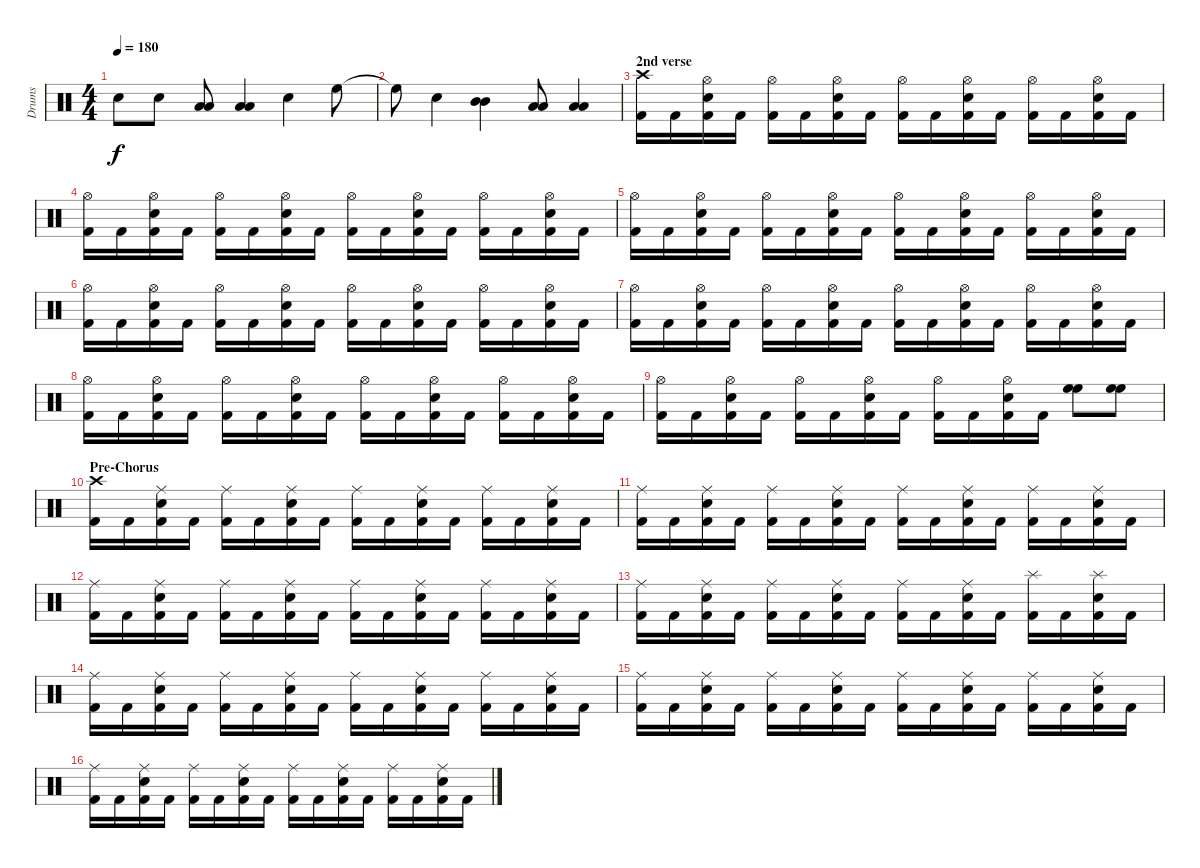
\track ("Drums" "Drums") {instrument percussion}
\staff {score}
\articulation defaults
\ts (4 4)
\tempo 180
\clef neutral
\ks c "Snare (hit) 2".8{dy f} "Snare (hit) 2".8
("Low Tom (hit)" "Low Tom (hit)").8 ("Low Floor Tom (hit)" "Low Floor Tom (hit)").4 "Snare (hit) 2".4 "High Floor Tom (hit)".8 |
"High Floor Tom (hit)"{t}.8 "Snare (hit) 2".4 ("Mid Tom (hit)" "Mid Tom (hit)").4 ("Low Tom (hit)" "Low Tom (hit)").8 ("Low Floor Tom (hit)" "Low Floor Tom (hit)").4 |
\section ("" "2nd verse")
("Crash high (hit)" "Kick (hit) 2").16 "Kick (hit) 2".16 ("Hi-Hat (open)" "Snare (hit) 2" "Kick (hit) 2").16 "Kick (hit) 2".16 ("Hi-Hat (open)" "Kick (hit) 2").16 "Kick (hit) 2".16 ("Hi-Hat (open)" "Snare (hit) 2" "Kick (hit) 2").16 "Kick (hit) 2".16 ("Hi-Hat (open)" "Kick (hit) 2").16 "Kick (hit) 2".16 ("Hi-Hat (open)" "Snare (hit) 2" "Kick (hit) 2").16 "Kick (hit) 2".16 ("Hi-Hat (open)" "Kick (hit) 2").16 "Kick (hit) 2".16 ("Hi-Hat (open)" "Snare (hit) 2" "Kick (hit) 2").16 "Kick (hit) 2".16 |
("Hi-Hat (open)" "Kick (hit) 2").16 "Kick (hit) 2".16 ("Hi-Hat (open)" "Snare (hit) 2" "Kick (hit) 2").16 "Kick (hit) 2".16 ("Hi-Hat (open)" "Kick (hit) 2").16 "Kick (hit) 2".16 ("Hi-Hat (open)" "Snare (hit) 2" "Kick (hit) 2").16 "Kick (hit) 2".16 ("Hi-Hat (open)" "Kick (hit) 2").16 "Kick (hit) 2".16 ("Hi-Hat (open)" "Snare (hit) 2" "Kick (hit) 2").16 "Kick (hit) 2".16 ("Hi-Hat (open)" "Kick (hit) 2").16 "Kick (hit) 2".16 ("Hi-Hat (open)" "Snare (hit) 2" "Kick (hit) 2").16 "Kick (hit) 2".16 |
("Hi-Hat (open)" "Kick (hit) 2").16 "Kick (hit) 2".16 ("Hi-Hat (open)" "Snare (hit) 2" "Kick (hit) 2").16 "Kick (hit) 2".16 ("Hi-Hat (open)" "Kick (hit) 2").16 "Kick (hit) 2".16 ("Hi-Hat (open)" "Snare (hit) 2" "Kick (hit) 2").16 "Kick (hit) 2".16 ("Hi-Hat (open)" "Kick (hit) 2").16 "Kick (hit) 2".16 ("Hi-Hat (open)" "Snare (hit) 2" "Kick (hit) 2").16 "Kick (hit) 2".16 ("Hi-Hat (open)" "Kick (hit) 2").16 "Kick (hit) 2".16 ("Hi-Hat (open)" "Snare (hit) 2" "Kick (hit) 2").16 "Kick (hit) 2".16 |
("Hi-Hat (open)" "Kick (hit) 2").16 "Kick (hit) 2".16 ("Hi-Hat (open)" "Snare (hit) 2" "Kick (hit) 2").16 "Kick (hit) 2".16 ("Hi-Hat (open)" "Kick (hit) 2").16 "Kick (hit) 2".16 ("Hi-Hat (open)" "Snare (hit) 2" "Kick (hit) 2").16 "Kick (hit) 2".16 ("Hi-Hat (open)" "Kick (hit) 2").16 "Kick (hit) 2".16 ("Hi-Hat (open)" "Snare (hit) 2" "Kick (hit) 2").16 "Kick (hit) 2".16 ("Hi-Hat (open)" "Kick (hit) 2").16 "Kick (hit) 2".16 ("Hi-Hat (open)" "Snare (hit) 2" "Kick (hit) 2").16 "Kick (hit) 2".16 |
("Hi-Hat (open)" "Kick (hit) 2").16 "Kick (hit) 2".16 ("Hi-Hat (open)" "Snare (hit) 2" "Kick (hit) 2").16 "Kick (hit) 2".16 ("Hi-Hat (open)" "Kick (hit) 2").16 "Kick (hit) 2".16 ("Hi-Hat (open)" "Snare (hit) 2" "Kick (hit) 2").16 "Kick (hit) 2".16 ("Hi-Hat (open)" "Kick (hit) 2").16 "Kick (hit) 2".16 ("Hi-Hat (open)" "Snare (hit) 2" "Kick (hit) 2").16 "Kick (hit) 2".16 ("Hi-Hat (open)" "Kick (hit) 2").16 "Kick (hit) 2".16 ("Hi-Hat (open)" "Snare (hit) 2" "Kick (hit) 2").16 "Kick (hit) 2".16 |
("Hi-Hat (open)" "Kick (hit) 2").16 "Kick (hit) 2".16 ("Hi-Hat (open)" "Snare (hit) 2" "Kick (hit) 2").16 "Kick (hit) 2".16 ("Hi-Hat (open)" "Kick (hit) 2").16 "Kick (hit) 2".16 ("Hi-Hat (open)" "Snare (hit) 2" "Kick (hit) 2").16 "Kick (hit) 2".16 ("Hi-Hat (open)" "Kick (hit) 2").16 "Kick (hit) 2".16 ("Hi-Hat (open)" "Snare (hit) 2" "Kick (hit) 2").16 "Kick (hit) 2".16 ("Hi-Hat (open)" "Kick (hit) 2").16 "Kick (hit) 2".16 ("Hi-Hat (open)" "Snare (hit) 2" "Kick (hit) 2").16 "Kick (hit) 2".16 |
("Hi-Hat (open)" "Kick (hit) 2").16 "Kick (hit) 2".16 ("Hi-Hat (open)" "Snare (hit) 2" "Kick (hit) 2").16 "Kick (hit) 2".16 ("Hi-Hat (open)" "Kick (hit) 2").16 "Kick (hit) 2".16 ("Hi-Hat (open)" "Snare (hit) 2" "Kick (hit) 2").16 "Kick (hit) 2".16 ("Hi-Hat (open)" "Kick (hit) 2").16 "Kick (hit) 2".16 ("Hi-Hat (open)" "Snare (hit) 2" "Kick (hit) 2").16 "Kick (hit) 2".16 ("High Floor Tom (hit)" "High Floor Tom (hit)").8 ("High Floor Tom (hit)" "High Floor Tom (hit)").8 |
\section ("" "Pre-Chorus")
("Crash high (hit)" "Kick (hit) 2").16 "Kick (hit) 2".16 ("Ride (middle)" "Snare (hit) 2" "Kick (hit) 2").16 "Kick (hit) 2".16 ("Ride (middle)" "Kick (hit) 2").16 "Kick (hit) 2".16 ("Ride (middle)" "Snare (hit) 2" "Kick (hit) 2").16 "Kick (hit) 2".16 ("Ride (middle)" "Kick (hit) 2").16 "Kick (hit) 2".16 ("Ride (middle)" "Snare (hit) 2" "Kick (hit) 2").16 "Kick (hit) 2".16 ("Ride (middle)" "Kick (hit) 2").16 "Kick (hit) 2".16 ("Ride (middle)" "Snare (hit) 2" "Kick (hit) 2").16 "Kick (hit) 2".16 |
("Ride (middle)" "Kick (hit) 2").16 "Kick (hit) 2".16 ("Ride (middle)" "Snare (hit) 2" "Kick (hit) 2").16 "Kick (hit) 2".16 ("Ride (middle)" "Kick (hit) 2").16 "Kick (hit) 2".16 ("Ride (middle)" "Snare (hit) 2" "Kick (hit) 2").16 "Kick (hit) 2".16 ("Ride (middle)" "Kick (hit) 2").16 "Kick (hit) 2".16 ("Ride (middle)" "Snare (hit) 2" "Kick (hit) 2").16 "Kick (hit) 2".16 ("Ride (middle)" "Kick (hit) 2").16 "Kick (hit) 2".16 ("Ride (middle)" "Snare (hit) 2" "Kick (hit) 2").16 "Kick (hit) 2".16 |
("Ride (middle)" "Kick (hit) 2").16 "Kick (hit) 2".16 ("Ride (middle)" "Snare (hit) 2" "Kick (hit) 2").16 "Kick (hit) 2".16 ("Ride (middle)" "Kick (hit) 2").16 "Kick (hit) 2".16 ("Ride (middle)" "Snare (hit) 2" "Kick (hit) 2").16 "Kick (hit) 2".16 ("Ride (middle)" "Kick (hit) 2").16 "Kick (hit) 2".16 ("Ride (middle)" "Snare (hit) 2" "Kick (hit) 2").16 "Kick (hit) 2".16 ("Ride (middle)" "Kick (hit) 2").16 "Kick (hit) 2".16 ("Ride (middle)" "Snare (hit) 2" "Kick (hit) 2").16 "Kick (hit) 2".16 |
("Ride (middle)" "Kick (hit) 2").16 "Kick (hit) 2".16 ("Ride (middle)" "Snare (hit) 2" "Kick (hit) 2").16 "Kick (hit) 2".16 ("Ride (middle)" "Kick (hit) 2").16 "Kick (hit) 2".16 ("Ride (middle)" "Snare (hit) 2" "Kick (hit) 2").16 "Kick (hit) 2".16 ("Ride (middle)" "Kick (hit) 2").16 "Kick (hit) 2".16 ("Ride (middle)" "Snare (hit) 2" "Kick (hit) 2").16 "Kick (hit) 2".16 ("Splash (hit)" "Kick (hit) 2").16 "Kick (hit) 2".16 ("Splash (hit)" "Snare (hit) 2" "Kick (hit) 2").16 "Kick (hit) 2".16 |
("Ride (middle)" "Kick (hit) 2").16 "Kick (hit) 2".16 ("Ride (middle)" "Snare (hit) 2" "Kick (hit) 2").16 "Kick (hit) 2".16 ("Ride (middle)" "Kick (hit) 2").16 "Kick (hit) 2".16 ("Ride (middle)" "Snare (hit) 2" "Kick (hit) 2").16 "Kick (hit) 2".16 ("Ride (middle)" "Kick (hit) 2").16 "Kick (hit) 2".16 ("Ride (middle)" "Snare (hit) 2" "Kick (hit) 2").16 "Kick (hit) 2".16 ("Ride (middle)" "Kick (hit) 2").16 "Kick (hit) 2".16 ("Ride (middle)" "Snare (hit) 2" "Kick (hit) 2").16 "Kick (hit) 2".16 |
("Ride (middle)" "Kick (hit) 2").16 "Kick (hit) 2".16 ("Ride (middle)" "Snare (hit) 2" "Kick (hit) 2").16 "Kick (hit) 2".16 ("Ride (middle)" "Kick (hit) 2").16 "Kick (hit) 2".16 ("Ride (middle)" "Snare (hit) 2" "Kick (hit) 2").16 "Kick (hit) 2".16 ("Ride (middle)" "Kick (hit) 2").16 "Kick (hit) 2".16 ("Ride (middle)" "Snare (hit) 2" "Kick (hit) 2").16 "Kick (hit) 2".16 ("Ride (middle)" "Kick (hit) 2").16 "Kick (hit) 2".16 ("Ride (middle)" "Snare (hit) 2" "Kick (hit) 2").16 "Kick (hit) 2".16 |
("Ride (middle)" "Kick (hit) 2").16 "Kick (hit) 2".16 ("Ride (middle)" "Snare (hit) 2" "Kick (hit) 2").16 "Kick (hit) 2".16 ("Ride (middle)" "Kick (hit) 2").16 "Kick (hit) 2".16 ("Ride (middle)" "Snare (hit) 2" "Kick (hit) 2").16 "Kick (hit) 2".16 ("Ride (middle)" "Kick (hit) 2").16 "Kick (hit) 2".16 ("Ride (middle)" "Snare (hit) 2" "Kick (hit) 2").16 "Kick (hit) 2".16 ("Ride (middle)" "Kick (hit) 2").16 "Kick (hit) 2".16 ("Ride (middle)" "Snare (hit) 2" "Kick (hit) 2").16 "Kick (hit) 2".16
